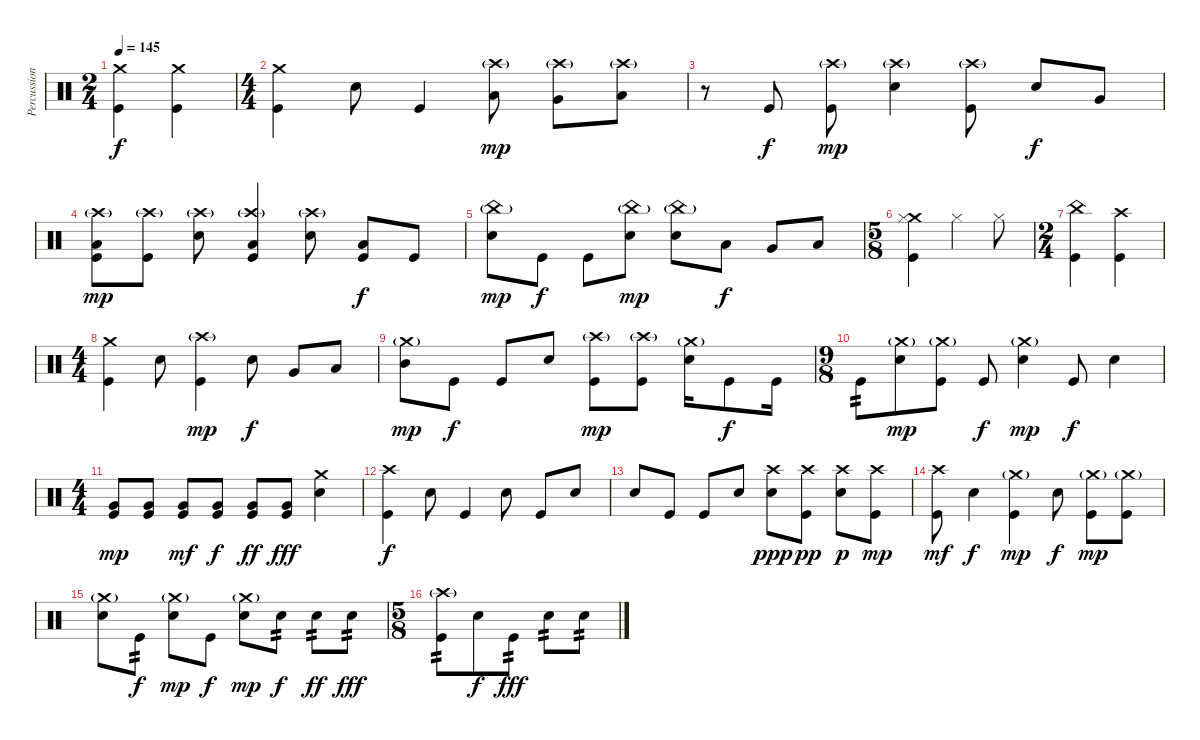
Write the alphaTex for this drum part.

\track ("Percussion" "Percussion") {instrument percussion}
\staff {score}
\articulation defaults
\ts (2 4)
\tempo 145
\clef neutral
\ks c
("Crash medium (hit)" "Kick (hit)").4{dy f} ("Crash medium (hit)" "Kick (hit)").4 |
\ts (4 4)
("Crash medium (hit)" "Kick (hit)").4 "Snare (hit) 2".8 "Kick (hit)".4 ("Crash high (hit)"{g} "Low Tom (hit)").8{dy mp} ("Crash high (hit)"{g} "Very Low Tom (hit)").8 ("Crash high (hit)"{g} "Low Floor Tom (hit)").8 |
r.8 "Kick (hit)".8{dy f} ("Crash high (hit)"{g} "Kick (hit)").8{dy mp} ("Crash high (hit)"{g} "Snare (hit) 2").4 ("Crash high (hit)"{g} "Kick (hit)").8 "Snare (hit) 2".8{dy f} "Very Low Tom (hit)".8 |
("Crash high (hit)"{g} "Low Floor Tom (hit)" "Kick (hit)").8{dy mp} ("Crash high (hit)"{g} "Kick (hit)").8 ("Crash high (hit)"{g} "Snare (hit) 2").8 ("Crash high (hit)"{g} "Low Floor Tom (hit)" "Kick (hit)").4 ("Crash high (hit)"{g} "Snare (hit) 2").8 ("Low Floor Tom (hit)" "Kick (hit)").8{dy f} "Kick (hit)".8 |
("China (hit)"{g} "Snare (hit) 2").8{dy mp} "Kick (hit)".8{dy f} "Kick (hit)".8 ("China (hit)"{g} "Snare (hit) 2").8{dy mp} ("China (hit)"{g} "Snare (hit) 2").8 "Low Tom (hit)".8{dy f} "Very Low Tom (hit)".8 "Low Floor Tom (hit)".8 |
\ts (5 8)
("Crash medium (hit)" "Hi-Hat (closed)" "Kick (hit)").4 "Hi-Hat (closed)".4 "Hi-Hat (closed)".8 |
\ts (2 4)
("China (hit)" "Kick (hit)").4 ("Crash high (hit)" "Kick (hit)").4 |
\ts (4 4)
("Crash medium (hit)" "Kick (hit)").4 "Snare (hit) 2".8 ("Crash high (hit)"{g} "Kick (hit)").4{dy mp} "Snare (hit) 2".8{dy f} "Very Low Tom (hit)".8 "Low Tom (hit)".8 |
("Crash medium (hit)"{g} "Mid Tom (hit)").8{dy mp} "Kick (hit)".8{dy f} "Kick (hit)".8 "Snare (hit) 2".8 ("Crash high (hit)"{g} "Kick (hit)").8{dy mp} ("Crash high (hit)"{g} "Kick (hit)").8 ("Crash medium (hit)"{g} "Snare (hit) 2").16 "Kick (hit)".8{dy f} "Kick (hit)".16 |
\ts (9 8)
"Kick (hit)".8{tp 2} ("Crash medium (hit)"{g} "Snare (hit) 2").8{dy mp} ("Crash medium (hit)"{g} "Kick (hit)").8 "Kick (hit)".8{dy f} ("Crash medium (hit)"{g} "Snare (hit) 2").4{dy mp} "Kick (hit)".8{dy f} "Snare (hit) 2".4 |
\ts (4 4)
("Very Low Tom (hit)" "Kick (hit)").8{dy mp} ("Very Low Tom (hit)" "Kick (hit)").8 ("Very Low Tom (hit)" "Kick (hit)").8{dy mf} ("Very Low Tom (hit)" "Kick (hit)").8{dy f} ("Very Low Tom (hit)" "Kick (hit)").8{dy ff} ("Very Low Tom (hit)" "Kick (hit)").8{dy fff} ("Crash medium (hit)" "Snare (hit) 2").4 |
("Crash high (hit)" "Kick (hit)").4{dy f} "Snare (hit) 2".8 "Kick (hit)".4 "Snare (hit) 2".8 "Kick (hit)".8 "Snare (hit) 2".8 |
"Snare (hit) 2".8 "Kick (hit)".8 "Kick (hit)".8 "Snare (hit) 2".8 ("Crash high (hit)" "Snare (hit) 2").8{dy ppp} ("Crash high (hit)" "Kick (hit)").8{dy pp} ("Crash high (hit)" "Snare (hit) 2").8{dy p} ("Crash high (hit)" "Kick (hit)").8{dy mp} |
("Crash high (hit)" "Kick (hit)").8{dy mf} "Snare (hit) 2".4{dy f} ("Crash medium (hit)"{g} "Kick (hit)").4{dy mp} "Snare (hit) 2".8{dy f} ("Crash medium (hit)"{g} "Kick (hit)").8{dy mp} ("Crash medium (hit)"{g} "Kick (hit)").8 |
("Crash medium (hit)"{g} "Snare (hit) 2").8 "Kick (hit)".8{tp 2 dy f} ("Crash medium (hit)"{g} "Snare (hit) 2").8{dy mp} "Kick (hit)".8{dy f} ("Crash medium (hit)"{g} "Snare (hit) 2").8{dy mp} "Snare (hit) 2".8{tp 2 dy f} "Snare (hit) 2".8{tp 2 dy ff} "Snare (hit) 2".8{tp 2 dy fff} |
\ts (5 8)
("Crash high (hit)"{g} "Kick (hit)").8{tp 2} "Snare (hit) 2".8{dy f} "Kick (hit)".8{tp 2 dy fff} "Snare (hit) 2".8{tp 2} "Snare (hit) 2".8{tp 2}
